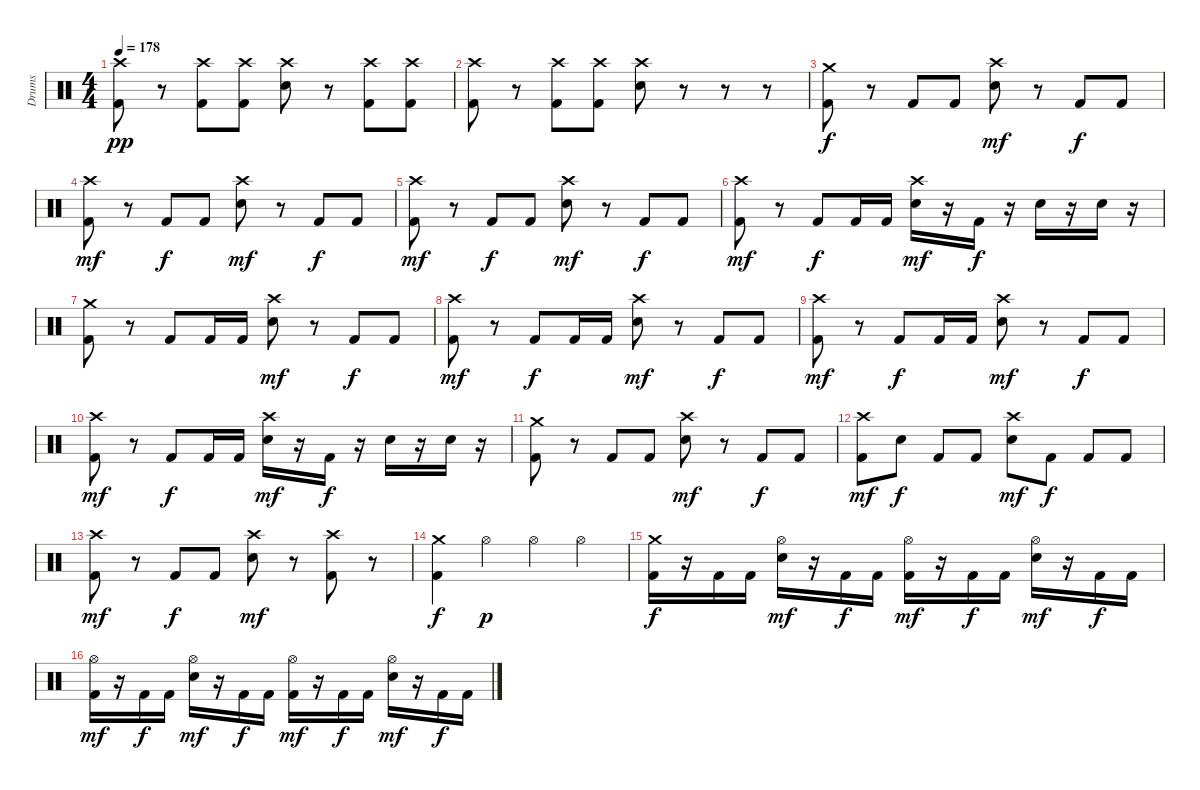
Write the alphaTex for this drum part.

\track ("Drums" "Drums") {instrument percussion}
\staff {score}
\articulation defaults
\ts (4 4)
\tempo 178
\clef neutral
\ks c
("Crash high (hit)" "Kick (hit) 2").8{dy pp} r.8 ("Crash high (hit)" "Kick (hit) 2").8 ("Crash high (hit)" "Kick (hit) 2").8 ("Crash high (hit)" "Snare (hit) 2").8 r.8 ("Crash high (hit)" "Kick (hit) 2").8 ("Crash high (hit)" "Kick (hit) 2").8 |
("Crash high (hit)" "Kick (hit) 2").8 r.8 ("Crash high (hit)" "Kick (hit) 2").8 ("Crash high (hit)" "Kick (hit) 2").8 ("Crash high (hit)" "Snare (hit) 2").8 r.8 r.8 r.8 |
("Crash medium (hit)" "Kick (hit) 2").8{dy f} r.8 "Kick (hit) 2".8 "Kick (hit) 2".8 ("Crash high (hit)" "Snare (hit) 2").8{dy mf} r.8 "Kick (hit) 2".8{dy f} "Kick (hit) 2".8 |
("Crash high (hit)" "Kick (hit) 2").8{dy mf} r.8 "Kick (hit) 2".8{dy f} "Kick (hit) 2".8 ("Crash high (hit)" "Snare (hit) 2").8{dy mf} r.8 "Kick (hit) 2".8{dy f} "Kick (hit) 2".8 |
("Crash high (hit)" "Kick (hit) 2").8{dy mf} r.8 "Kick (hit) 2".8{dy f} "Kick (hit) 2".8 ("Crash high (hit)" "Snare (hit) 2").8{dy mf} r.8 "Kick (hit) 2".8{dy f} "Kick (hit) 2".8 |
("Crash high (hit)" "Kick (hit) 2").8{dy mf} r.8 "Kick (hit) 2".8{dy f} "Kick (hit) 2".16 "Kick (hit) 2".16 ("Crash high (hit)" "Snare (hit) 2").16{dy mf} r.16 "Kick (hit) 2".16{dy f} r.16 "Snare (hit) 2".16 r.16 "Snare (hit) 2".16 r.16 |
("Crash medium (hit)" "Kick (hit) 2").8 r.8 "Kick (hit) 2".8 "Kick (hit) 2".16 "Kick (hit) 2".16 ("Crash high (hit)" "Snare (hit) 2").8{dy mf} r.8 "Kick (hit) 2".8{dy f} "Kick (hit) 2".8 |
("Crash high (hit)" "Kick (hit) 2").8{dy mf} r.8 "Kick (hit) 2".8{dy f} "Kick (hit) 2".16 "Kick (hit) 2".16 ("Crash high (hit)" "Snare (hit) 2").8{dy mf} r.8 "Kick (hit) 2".8{dy f} "Kick (hit) 2".8 |
("Crash high (hit)" "Kick (hit) 2").8{dy mf} r.8 "Kick (hit) 2".8{dy f} "Kick (hit) 2".16 "Kick (hit) 2".16 ("Crash high (hit)" "Snare (hit) 2").8{dy mf} r.8 "Kick (hit) 2".8{dy f} "Kick (hit) 2".8 |
("Crash high (hit)" "Kick (hit) 2").8{dy mf} r.8 "Kick (hit) 2".8{dy f} "Kick (hit) 2".16 "Kick (hit) 2".16 ("Crash high (hit)" "Snare (hit) 2").16{dy mf} r.16 "Kick (hit) 2".16{dy f} r.16 "Snare (hit) 2".16 r.16 "Snare (hit) 2".16 r.16 |
("Crash medium (hit)" "Kick (hit) 2").8 r.8 "Kick (hit) 2".8 "Kick (hit) 2".8 ("Crash high (hit)" "Snare (hit) 2").8{dy mf} r.8 "Kick (hit) 2".8{dy f} "Kick (hit) 2".8 |
("Crash high (hit)" "Kick (hit) 2").8{dy mf} "Snare (hit) 2".8{dy f} "Kick (hit) 2".8 "Kick (hit) 2".8 ("Crash high (hit)" "Snare (hit) 2").8{dy mf} "Kick (hit) 2".8{dy f} "Kick (hit) 2".8 "Kick (hit) 2".8 |
("Crash high (hit)" "Kick (hit) 2").8{dy mf} r.8 "Kick (hit) 2".8{dy f} "Kick (hit) 2".8 ("Crash high (hit)" "Snare (hit) 2").8{dy mf} r.8 ("Crash high (hit)" "Kick (hit) 2").8 r.8 |
("Crash medium (hit)" "Kick (hit) 2").4{dy f} "Hi-Hat (open)".4{dy p} "Hi-Hat (open)".4 "Hi-Hat (open)".4 |
("Crash medium (hit)" "Kick (hit) 2").16{dy f} r.16 "Kick (hit) 2".16 "Kick (hit) 2".16 ("Hi-Hat (open)" "Snare (hit) 2").16{dy mf} r.16 "Kick (hit) 2".16{dy f} "Kick (hit) 2".16 ("Hi-Hat (open)" "Kick (hit) 2").16{dy mf} r.16 "Kick (hit) 2".16{dy f} "Kick (hit) 2".16 ("Hi-Hat (open)" "Snare (hit) 2").16{dy mf} r.16 "Kick (hit) 2".16{dy f} "Kick (hit) 2".16 |
("Hi-Hat (open)" "Kick (hit) 2").16{dy mf} r.16 "Kick (hit) 2".16{dy f} "Kick (hit) 2".16 ("Hi-Hat (open)" "Snare (hit) 2").16{dy mf} r.16 "Kick (hit) 2".16{dy f} "Kick (hit) 2".16 ("Hi-Hat (open)" "Kick (hit) 2").16{dy mf} r.16 "Kick (hit) 2".16{dy f} "Kick (hit) 2".16 ("Hi-Hat (open)" "Snare (hit) 2").16{dy mf} r.16 "Kick (hit) 2".16{dy f} "Kick (hit) 2".16
